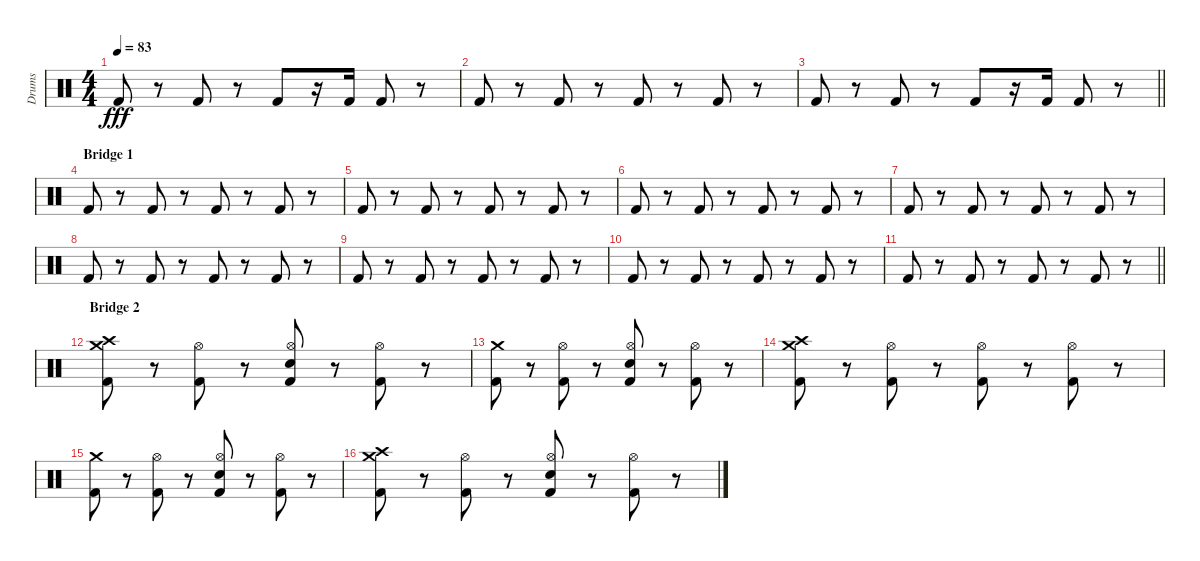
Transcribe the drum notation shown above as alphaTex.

\track ("Drums" "Drums") {instrument percussion}
\staff {score}
\articulation defaults
\ts (4 4)
\tempo 83
\clef neutral
\ks c "Kick (hit) 2".8{dy fff}
r.8 "Kick (hit) 2".8 r.8 "Kick (hit) 2".8 r.16 "Kick (hit) 2".16 "Kick (hit) 2".8 r.8 |
"Kick (hit) 2".8 r.8 "Kick (hit) 2".8 r.8 "Kick (hit) 2".8 r.8 "Kick (hit) 2".8 r.8 |
\barLineRight lightlight "Kick (hit) 2".8
r.8 "Kick (hit) 2".8 r.8 "Kick (hit) 2".8 r.16 "Kick (hit) 2".16 "Kick (hit) 2".8 r.8 |
\section ("" "Bridge 1")
"Kick (hit) 2".8 r.8 "Kick (hit) 2".8 r.8 "Kick (hit) 2".8 r.8 "Kick (hit) 2".8 r.8 |
"Kick (hit) 2".8 r.8 "Kick (hit) 2".8 r.8 "Kick (hit) 2".8 r.8 "Kick (hit) 2".8 r.8 |
"Kick (hit) 2".8 r.8 "Kick (hit) 2".8 r.8 "Kick (hit) 2".8 r.8 "Kick (hit) 2".8 r.8 |
"Kick (hit) 2".8 r.8 "Kick (hit) 2".8 r.8 "Kick (hit) 2".8 r.8 "Kick (hit) 2".8 r.8 |
"Kick (hit) 2".8 r.8 "Kick (hit) 2".8 r.8 "Kick (hit) 2".8 r.8 "Kick (hit) 2".8 r.8 |
"Kick (hit) 2".8 r.8 "Kick (hit) 2".8 r.8 "Kick (hit) 2".8 r.8 "Kick (hit) 2".8 r.8 |
"Kick (hit) 2".8 r.8 "Kick (hit) 2".8 r.8 "Kick (hit) 2".8 r.8 "Kick (hit) 2".8 r.8 |
\barLineRight lightlight "Kick (hit) 2".8
r.8 "Kick (hit) 2".8 r.8 "Kick (hit) 2".8 r.8 "Kick (hit) 2".8 r.8 |
\section ("" "Bridge 2")
("Crash high (hit)" "Crash medium (hit)" "Kick (hit) 2").8 r.8 ("Hi-Hat (open)" "Kick (hit) 2").8 r.8 ("Hi-Hat (open)" "Snare (hit) 2" "Kick (hit) 2").8 r.8 ("Hi-Hat (open)" "Kick (hit) 2").8 r.8 |
("Crash medium (hit)" "Kick (hit) 2").8 r.8 ("Hi-Hat (open)" "Kick (hit) 2").8 r.8 ("Hi-Hat (open)" "Snare (hit) 2" "Kick (hit) 2").8 r.8 ("Hi-Hat (open)" "Kick (hit) 2").8 r.8 |
("Crash high (hit)" "Crash medium (hit)" "Kick (hit) 2").8 r.8 ("Hi-Hat (open)" "Kick (hit) 2").8 r.8 ("Hi-Hat (open)" "Kick (hit) 2").8 r.8 ("Hi-Hat (open)" "Kick (hit) 2").8 r.8 |
("Crash medium (hit)" "Kick (hit) 2").8 r.8 ("Hi-Hat (open)" "Kick (hit) 2").8 r.8 ("Hi-Hat (open)" "Snare (hit) 2" "Kick (hit) 2").8 r.8 ("Hi-Hat (open)" "Kick (hit) 2").8 r.8 |
("Crash high (hit)" "Crash medium (hit)" "Kick (hit) 2").8 r.8 ("Hi-Hat (open)" "Kick (hit) 2").8 r.8 ("Hi-Hat (open)" "Snare (hit) 2" "Kick (hit) 2").8 r.8 ("Hi-Hat (open)" "Kick (hit) 2").8 r.8
